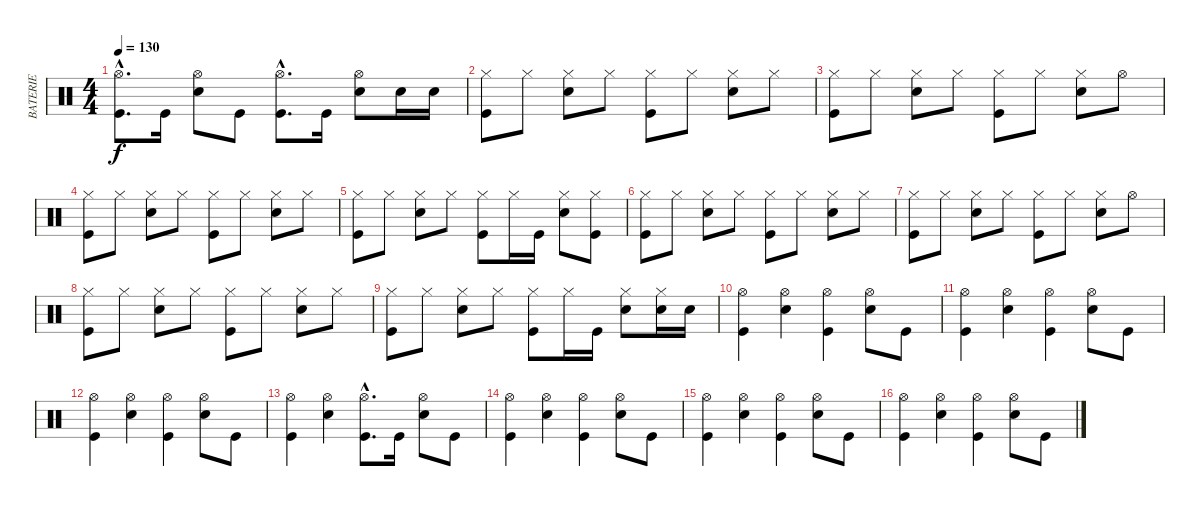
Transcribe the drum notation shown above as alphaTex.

\track ("BATERIE" "BATERIE") {instrument percussion}
\staff {score}
\articulation defaults
\ts (4 4)
\tempo 130
\clef neutral
\ks c
("Hi-Hat (open)"{hac} "Kick (hit)"{hac}).8{d dy f} "Kick (hit)".16 ("Hi-Hat (open)" "Snare (hit) 2").8 "Kick (hit)".8 ("Hi-Hat (open)"{hac} "Kick (hit)"{hac}).8{d} "Kick (hit)".16 ("Hi-Hat (open)" "Snare (hit) 2").8 "Snare (hit) 2".16 "Snare (hit) 2".16 |
("Hi-Hat (closed)" "Kick (hit)").8 "Hi-Hat (closed)".8 ("Hi-Hat (closed)" "Snare (hit) 2").8 "Hi-Hat (closed)".8 ("Hi-Hat (closed)" "Kick (hit)").8 "Hi-Hat (closed)".8 ("Hi-Hat (closed)" "Snare (hit) 2").8 "Hi-Hat (closed)".8 |
("Hi-Hat (closed)" "Kick (hit)").8 "Hi-Hat (closed)".8 ("Hi-Hat (closed)" "Snare (hit) 2").8 "Hi-Hat (closed)".8 ("Hi-Hat (closed)" "Kick (hit)").8 "Hi-Hat (closed)".8 ("Hi-Hat (closed)" "Snare (hit) 2").8 "Hi-Hat (open)".8 |
("Hi-Hat (closed)" "Kick (hit)").8 "Hi-Hat (closed)".8 ("Hi-Hat (closed)" "Snare (hit) 2").8 "Hi-Hat (closed)".8 ("Hi-Hat (closed)" "Kick (hit)").8 "Hi-Hat (closed)".8 ("Hi-Hat (closed)" "Snare (hit) 2").8 "Hi-Hat (closed)".8 |
("Hi-Hat (closed)" "Kick (hit)").8 "Hi-Hat (closed)".8 ("Hi-Hat (closed)" "Snare (hit) 2").8 "Hi-Hat (closed)".8 ("Hi-Hat (closed)" "Kick (hit)").8 "Hi-Hat (closed)".16 "Kick (hit)".16 ("Hi-Hat (closed)" "Snare (hit) 2").8 ("Hi-Hat (closed)" "Kick (hit)").8 |
("Hi-Hat (closed)" "Kick (hit)").8 "Hi-Hat (closed)".8 ("Hi-Hat (closed)" "Snare (hit) 2").8 "Hi-Hat (closed)".8 ("Hi-Hat (closed)" "Kick (hit)").8 "Hi-Hat (closed)".8 ("Hi-Hat (closed)" "Snare (hit) 2").8 "Hi-Hat (closed)".8 |
("Hi-Hat (closed)" "Kick (hit)").8 "Hi-Hat (closed)".8 ("Hi-Hat (closed)" "Snare (hit) 2").8 "Hi-Hat (closed)".8 ("Hi-Hat (closed)" "Kick (hit)").8 "Hi-Hat (closed)".8 ("Hi-Hat (closed)" "Snare (hit) 2").8 "Hi-Hat (open)".8 |
("Hi-Hat (closed)" "Kick (hit)").8 "Hi-Hat (closed)".8 ("Hi-Hat (closed)" "Snare (hit) 2").8 "Hi-Hat (closed)".8 ("Hi-Hat (closed)" "Kick (hit)").8 "Hi-Hat (closed)".8 ("Hi-Hat (closed)" "Snare (hit) 2").8 "Hi-Hat (closed)".8 |
("Hi-Hat (closed)" "Kick (hit)").8 "Hi-Hat (closed)".8 ("Hi-Hat (closed)" "Snare (hit) 2").8 "Hi-Hat (closed)".8 ("Hi-Hat (closed)" "Kick (hit)").8 "Hi-Hat (closed)".16 "Kick (hit)".16 ("Hi-Hat (closed)" "Snare (hit) 2").8 ("Hi-Hat (closed)" "Snare (hit) 2").16 "Snare (hit) 2".16 |
("Hi-Hat (open)" "Kick (hit)").4 ("Hi-Hat (open)" "Snare (hit) 2").4 ("Hi-Hat (open)" "Kick (hit)").4 ("Hi-Hat (open)" "Snare (hit) 2").8 "Kick (hit)".8 |
("Hi-Hat (open)" "Kick (hit)").4 ("Hi-Hat (open)" "Snare (hit) 2").4 ("Hi-Hat (open)" "Kick (hit)").4 ("Hi-Hat (open)" "Snare (hit) 2").8 "Kick (hit)".8 |
("Hi-Hat (open)" "Kick (hit)").4 ("Hi-Hat (open)" "Snare (hit) 2").4 ("Hi-Hat (open)" "Kick (hit)").4 ("Hi-Hat (open)" "Snare (hit) 2").8 "Kick (hit)".8 |
("Hi-Hat (open)" "Kick (hit)").4 ("Hi-Hat (open)" "Snare (hit) 2").4 ("Hi-Hat (open)"{hac} "Kick (hit)"{hac}).8{d} "Kick (hit)".16 ("Hi-Hat (open)" "Snare (hit) 2").8 "Kick (hit)".8 |
("Hi-Hat (open)" "Kick (hit)").4 ("Hi-Hat (open)" "Snare (hit) 2").4 ("Hi-Hat (open)" "Kick (hit)").4 ("Hi-Hat (open)" "Snare (hit) 2").8 "Kick (hit)".8 |
("Hi-Hat (open)" "Kick (hit)").4 ("Hi-Hat (open)" "Snare (hit) 2").4 ("Hi-Hat (open)" "Kick (hit)").4 ("Hi-Hat (open)" "Snare (hit) 2").8 "Kick (hit)".8 |
("Hi-Hat (open)" "Kick (hit)").4 ("Hi-Hat (open)" "Snare (hit) 2").4 ("Hi-Hat (open)" "Kick (hit)").4 ("Hi-Hat (open)" "Snare (hit) 2").8 "Kick (hit)".8
